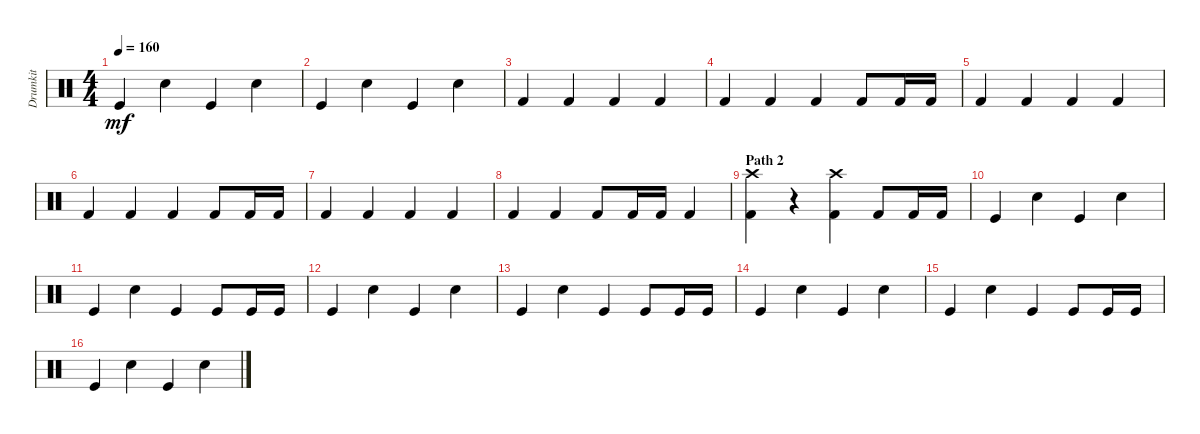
\track ("Drumkit" "Drumkit") {instrument percussion}
\staff {score}
\articulation defaults
\ts (4 4)
\tempo 160
\clef neutral
\ks c "Kick (hit)".4{dy mf} "Hand Clap (hit)".4 "Kick (hit)".4 "Hand Clap (hit)".4
|
"Kick (hit)".4 "Hand Clap (hit)".4 "Kick (hit)".4 "Hand Clap (hit)".4 |
"Kick (hit) 2".4 "Kick (hit) 2".4 "Kick (hit) 2".4 "Kick (hit) 2".4 |
"Kick (hit) 2".4 "Kick (hit) 2".4 "Kick (hit) 2".4 "Kick (hit) 2".8 "Kick (hit) 2".16 "Kick (hit) 2".16 |
"Kick (hit) 2".4 "Kick (hit) 2".4 "Kick (hit) 2".4 "Kick (hit) 2".4 |
"Kick (hit) 2".4 "Kick (hit) 2".4 "Kick (hit) 2".4 "Kick (hit) 2".8 "Kick (hit) 2".16 "Kick (hit) 2".16 |
"Kick (hit) 2".4 "Kick (hit) 2".4 "Kick (hit) 2".4 "Kick (hit) 2".4 |
"Kick (hit) 2".4 "Kick (hit) 2".4 "Kick (hit) 2".8 "Kick (hit) 2".16 "Kick (hit) 2".16 "Kick (hit) 2".4 |
\section ("" "Path 2")
("Crash high (hit)" "Kick (hit) 2").4 r.4 ("Kick (hit) 2" "Crash high (hit)").4 "Kick (hit) 2".8 "Kick (hit) 2".16 "Kick (hit) 2".16 |
"Kick (hit)".4 "Hand Clap (hit)".4 "Kick (hit)".4 "Hand Clap (hit)".4 |
"Kick (hit)".4 "Hand Clap (hit)".4 "Kick (hit)".4 "Kick (hit)".8 "Kick (hit)".16 "Kick (hit)".16 |
"Kick (hit)".4 "Hand Clap (hit)".4 "Kick (hit)".4 "Hand Clap (hit)".4 |
"Kick (hit)".4 "Hand Clap (hit)".4 "Kick (hit)".4 "Kick (hit)".8 "Kick (hit)".16 "Kick (hit)".16 |
"Kick (hit)".4 "Hand Clap (hit)".4 "Kick (hit)".4 "Hand Clap (hit)".4 |
"Kick (hit)".4 "Hand Clap (hit)".4 "Kick (hit)".4 "Kick (hit)".8 "Kick (hit)".16 "Kick (hit)".16 |
"Kick (hit)".4 "Hand Clap (hit)".4 "Kick (hit)".4 "Hand Clap (hit)".4
